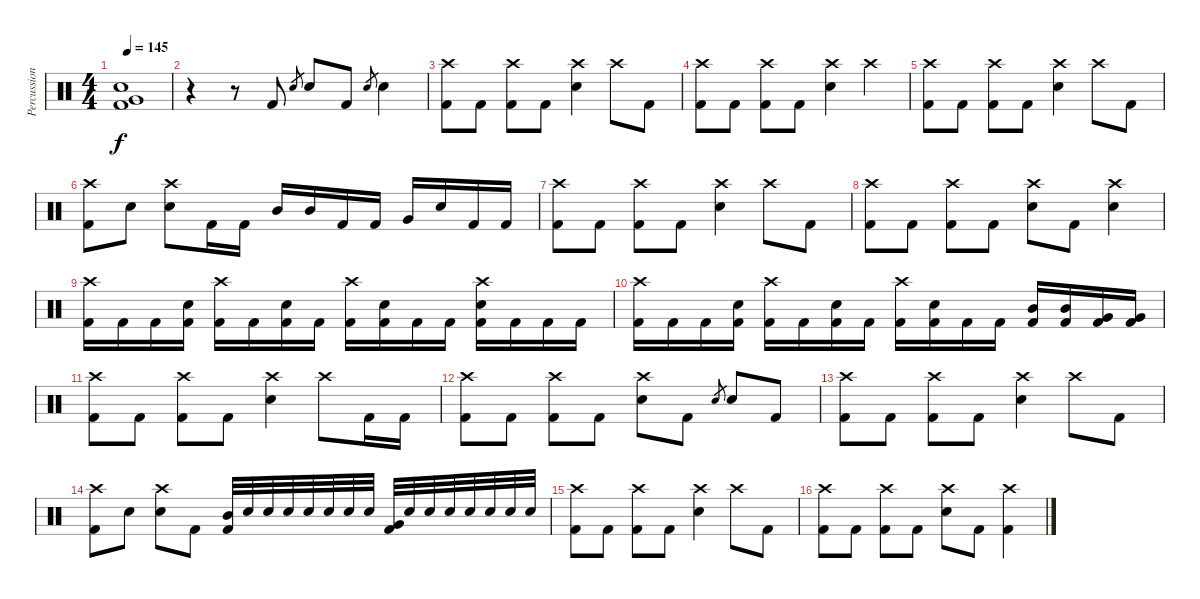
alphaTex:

\track ("Percussion" "Percussion") {instrument percussion}
\staff {score}
\articulation defaults
\ts (4 4)
\tempo 145
\clef neutral
\ks c
("Snare (hit) 2" "Very Low Tom (hit)" "Kick (hit) 2").1{dy f} |
r.4 r.8 "Kick (hit) 2".8 "Snare (hit) 2".8{gr} "Snare (hit) 2".8 "Kick (hit) 2".8 "Snare (hit) 2".8{gr} "Snare (hit) 2".4 |
("Crash high (hit)" "Kick (hit) 2").8 "Kick (hit) 2".8 ("Crash high (hit)" "Kick (hit) 2").8 "Kick (hit) 2".8 ("Crash high (hit)" "Snare (hit) 2").4 "Crash high (hit)".8 "Kick (hit) 2".8 |
("Crash high (hit)" "Kick (hit) 2").8 "Kick (hit) 2".8 ("Crash high (hit)" "Kick (hit) 2").8 "Kick (hit) 2".8 ("Crash high (hit)" "Snare (hit) 2").4 "Crash high (hit)".4 |
("Crash high (hit)" "Kick (hit) 2").8 "Kick (hit) 2".8 ("Crash high (hit)" "Kick (hit) 2").8 "Kick (hit) 2".8 ("Crash high (hit)" "Snare (hit) 2").4 "Crash high (hit)".8 "Kick (hit) 2".8 |
("Crash high (hit)" "Kick (hit) 2").8 "Snare (hit) 2".8 ("Crash high (hit)" "Snare (hit) 2").8 "Kick (hit) 2".16 "Kick (hit) 2".16 "Mid Tom (hit)".16 "Mid Tom (hit)".16 "Kick (hit) 2".16 "Kick (hit) 2".16 "Very Low Tom (hit)".16 "Snare (hit) 2".16 "Kick (hit) 2".16 "Kick (hit) 2".16 |
("Crash high (hit)" "Kick (hit) 2").8 "Kick (hit) 2".8 ("Crash high (hit)" "Kick (hit) 2").8 "Kick (hit) 2".8 ("Crash high (hit)" "Snare (hit) 2").4 "Crash high (hit)".8 "Kick (hit) 2".8 |
("Crash high (hit)" "Kick (hit) 2").8 "Kick (hit) 2".8 ("Crash high (hit)" "Kick (hit) 2").8 "Kick (hit) 2".8 ("Crash high (hit)" "Snare (hit) 2").8 "Kick (hit) 2".8 ("Crash high (hit)" "Snare (hit) 2").4 |
("Crash high (hit)" "Kick (hit) 2").16 "Kick (hit) 2".16 "Kick (hit) 2".16 ("Snare (hit) 2" "Kick (hit) 2").16 ("Crash high (hit)" "Kick (hit) 2").16 "Kick (hit) 2".16 ("Snare (hit) 2" "Kick (hit) 2").16 "Kick (hit) 2".16 ("Crash high (hit)" "Kick (hit) 2").16 ("Snare (hit) 2" "Kick (hit) 2").16 "Kick (hit) 2".16 "Kick (hit) 2".16 ("Crash high (hit)" "Snare (hit) 2" "Kick (hit) 2").16 "Kick (hit) 2".16 "Kick (hit) 2".16 "Kick (hit) 2".16 |
("Crash high (hit)" "Kick (hit) 2").16 "Kick (hit) 2".16 "Kick (hit) 2".16 ("Snare (hit) 2" "Kick (hit) 2").16 ("Crash high (hit)" "Kick (hit) 2").16 "Kick (hit) 2".16 ("Snare (hit) 2" "Kick (hit) 2").16 "Kick (hit) 2".16 ("Crash high (hit)" "Kick (hit) 2").16 ("Snare (hit) 2" "Kick (hit) 2").16 "Kick (hit) 2".16 "Kick (hit) 2".16 ("Mid Tom (hit)" "Kick (hit) 2").16 ("Mid Tom (hit)" "Kick (hit) 2").16 ("Very Low Tom (hit)" "Kick (hit) 2").16 ("Very Low Tom (hit)" "Kick (hit) 2").16 |
("Crash high (hit)" "Kick (hit) 2").8 "Kick (hit) 2".8 ("Crash high (hit)" "Kick (hit) 2").8 "Kick (hit) 2".8 ("Crash high (hit)" "Snare (hit) 2").4 "Crash high (hit)".8 "Kick (hit) 2".16 "Kick (hit) 2".16 |
("Crash high (hit)" "Kick (hit) 2").8 "Kick (hit) 2".8 ("Crash high (hit)" "Kick (hit) 2").8 "Kick (hit) 2".8 ("Crash high (hit)" "Snare (hit) 2").8 "Kick (hit) 2".8 "Snare (hit) 2".8{gr} "Snare (hit) 2".8 "Kick (hit) 2".8 |
("Crash high (hit)" "Kick (hit) 2").8 "Kick (hit) 2".8 ("Crash high (hit)" "Kick (hit) 2").8 "Kick (hit) 2".8 ("Crash high (hit)" "Snare (hit) 2").4 "Crash high (hit)".8 "Kick (hit) 2".8 |
("Crash high (hit)" "Kick (hit) 2").8 "Snare (hit) 2".8 ("Crash high (hit)" "Snare (hit) 2").8 "Kick (hit) 2".8 ("Mid Tom (hit)" "Kick (hit) 2").32 "Snare (hit) 2".32 "Snare (hit) 2".32 "Snare (hit) 2".32 "Snare (hit) 2".32 "Snare (hit) 2".32 "Snare (hit) 2".32 "Snare (hit) 2".32 ("Very Low Tom (hit)" "Kick (hit) 2").32 "Snare (hit) 2".32 "Snare (hit) 2".32 "Snare (hit) 2".32 "Snare (hit) 2".32 "Snare (hit) 2".32 "Snare (hit) 2".32 "Snare (hit) 2".32 |
("Crash high (hit)" "Kick (hit) 2").8 "Kick (hit) 2".8 ("Crash high (hit)" "Kick (hit) 2").8 "Kick (hit) 2".8 ("Crash high (hit)" "Snare (hit) 2").4 "Crash high (hit)".8 "Kick (hit) 2".8 |
("Crash high (hit)" "Kick (hit) 2").8 "Kick (hit) 2".8 ("Crash high (hit)" "Kick (hit) 2").8 "Kick (hit) 2".8 ("Crash high (hit)" "Snare (hit) 2").8 "Kick (hit) 2".8 ("Crash high (hit)" "Kick (hit) 2").4
